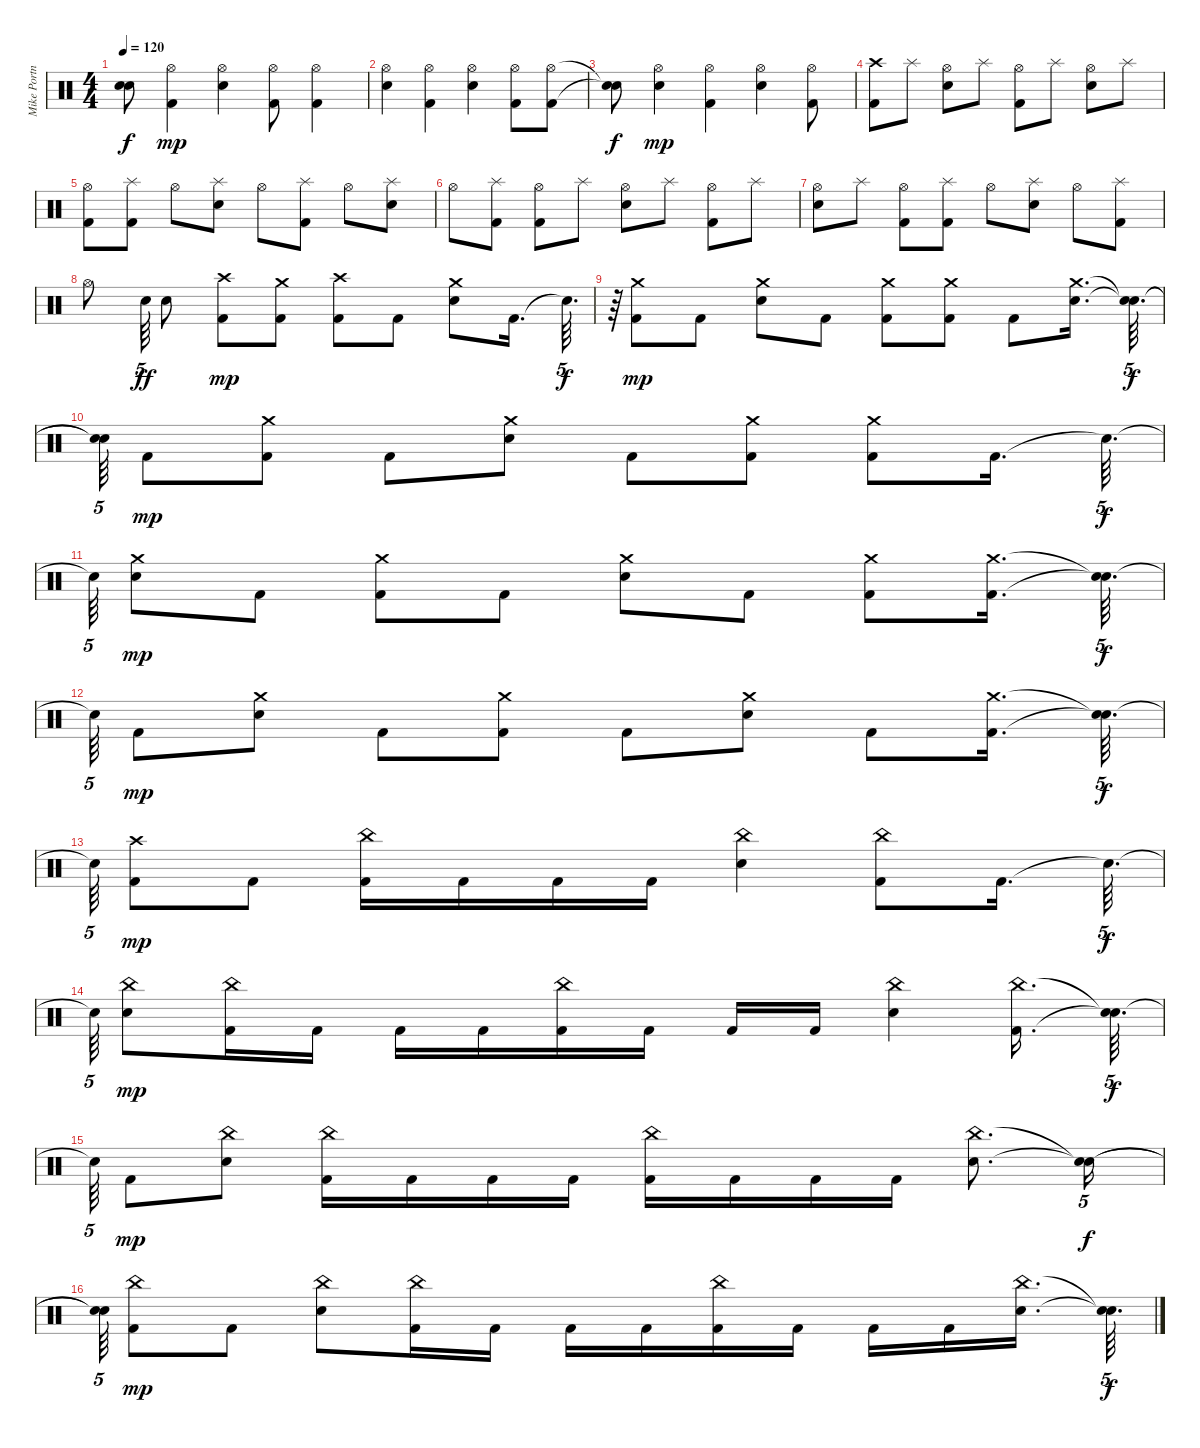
\track ("Mike Portnoy" "Mike Portn") {instrument percussion}
\staff {score}
\articulation defaults
\ts (4 4)
\tempo 120
\clef neutral
\ks c
("Snare (hit)"{t} "Snare (hit)"{t}).8{dy f} ("Kick (hit) 2" "Hi-Hat (open)").4{dy mp} ("Electric Snare (hit)" "Hi-Hat (open)").4 ("Kick (hit) 2" "Hi-Hat (open)").8 ("Kick (hit) 2" "Hi-Hat (open)").4 |
("Electric Snare (hit)" "Hi-Hat (open)").4 ("Kick (hit) 2" "Hi-Hat (open)").4 ("Electric Snare (hit)" "Hi-Hat (open)").4 ("Kick (hit) 2" "Hi-Hat (open)").8 ("Kick (hit) 2" "Hi-Hat (open)").8 |
("Snare (hit)"{t} "Snare (hit)"{t}).8{dy f} ("Electric Snare (hit)" "Hi-Hat (open)").4{dy mp} ("Kick (hit) 2" "Hi-Hat (open)").4 ("Electric Snare (hit)" "Hi-Hat (open)").4 ("Kick (hit) 2" "Hi-Hat (open)").8 |
("Kick (hit) 2" "Crash high (hit)").8 "Splash (hit)".8 ("Electric Snare (hit)" "Hi-Hat (open)").8 "Splash (hit)".8 ("Kick (hit) 2" "Hi-Hat (open)").8 "Splash (hit)".8 ("Electric Snare (hit)" "Hi-Hat (open)").8 "Splash (hit)".8 |
("Kick (hit) 2" "Hi-Hat (open)").8 ("Kick (hit) 2" "Splash (hit)").8 "Hi-Hat (open)".8 ("Electric Snare (hit)" "Splash (hit)").8 "Hi-Hat (open)".8 ("Kick (hit) 2" "Splash (hit)").8 "Hi-Hat (open)".8 ("Electric Snare (hit)" "Splash (hit)").8 |
"Hi-Hat (open)".8 ("Kick (hit) 2" "Splash (hit)").8 ("Kick (hit) 2" "Hi-Hat (open)").8 "Splash (hit)".8 ("Electric Snare (hit)" "Hi-Hat (open)").8 "Splash (hit)".8 ("Kick (hit) 2" "Hi-Hat (open)").8 "Splash (hit)".8 |
("Electric Snare (hit)" "Hi-Hat (open)").8 "Splash (hit)".8 ("Kick (hit) 2" "Hi-Hat (open)").8 ("Kick (hit) 2" "Splash (hit)").8 "Hi-Hat (open)".8 ("Electric Snare (hit)" "Splash (hit)").8 "Hi-Hat (open)".8 ("Kick (hit) 2" "Splash (hit)").8 |
"Hi-Hat (open)".8 "Electric Snare (hit)".64{tu (5 4) dy ff} "Electric Snare (hit)".8 ("Kick (hit) 2" "Crash high (hit)").8{dy mp} ("Kick (hit) 2" "Crash medium (hit)").8 ("Kick (hit) 2" "Crash high (hit)").8 "Kick (hit) 2".8 ("Electric Snare (hit)" "Crash medium (hit)").8 "Kick (hit) 2".16{d} "Snare (hit)"{t}.64{d tu (5 4) dy f} |
r.64{tu (5 4)} ("Kick (hit) 2" "Crash medium (hit)").8{dy mp} "Kick (hit) 2".8 ("Electric Snare (hit)" "Crash medium (hit)").8 "Kick (hit) 2".8 ("Kick (hit) 2" "Crash medium (hit)").8 ("Kick (hit) 2" "Crash medium (hit)").8 "Kick (hit) 2".8 ("Electric Snare (hit)" "Crash medium (hit)").16{d} ("Snare (hit)"{t} "Snare (hit)"{t}).64{d tu (5 4) dy f} |
("Snare (hit)"{t} "Snare (hit)"{t}).64{tu (5 4)} "Kick (hit) 2".8{dy mp} ("Kick (hit) 2" "Crash medium (hit)").8 "Kick (hit) 2".8 ("Electric Snare (hit)" "Crash medium (hit)").8 "Kick (hit) 2".8 ("Kick (hit) 2" "Crash medium (hit)").8 ("Kick (hit) 2" "Crash medium (hit)").8 "Kick (hit) 2".16{d} "Snare (hit)"{t}.64{d tu (5 4) dy f} |
"Snare (hit)"{t}.64{tu (5 4)} ("Electric Snare (hit)" "Crash medium (hit)").8{dy mp} "Kick (hit) 2".8 ("Kick (hit) 2" "Crash medium (hit)").8 "Kick (hit) 2".8 ("Electric Snare (hit)" "Crash medium (hit)").8 "Kick (hit) 2".8 ("Kick (hit) 2" "Crash medium (hit)").8 ("Kick (hit) 2" "Crash medium (hit)").16{d} ("Snare (hit)"{t} "Snare (hit)"{t}).64{d tu (5 4) dy f} |
"Snare (hit)"{t}.64{tu (5 4)} "Kick (hit) 2".8{dy mp} ("Electric Snare (hit)" "Crash medium (hit)").8 "Kick (hit) 2".8 ("Kick (hit) 2" "Crash medium (hit)").8 "Kick (hit) 2".8 ("Electric Snare (hit)" "Crash medium (hit)").8 "Kick (hit) 2".8 ("Kick (hit) 2" "Crash medium (hit)").16{d} ("Snare (hit)"{t} "Snare (hit)"{t}).64{d tu (5 4) dy f} |
"Snare (hit)"{t}.64{tu (5 4)} ("Kick (hit) 2" "Crash high (hit)").8{dy mp} "Kick (hit) 2".8 ("Kick (hit) 2" "China (hit)").16 "Kick (hit) 2".16 "Kick (hit) 2".16 "Kick (hit) 2".16 ("Electric Snare (hit)" "China (hit)").4 ("Kick (hit) 2" "China (hit)").8 "Kick (hit) 2".16{d} "Snare (hit)"{t}.64{d tu (5 4) dy f} |
"Snare (hit)"{t}.64{tu (5 4)} ("Electric Snare (hit)" "China (hit)").8{dy mp} ("Kick (hit) 2" "China (hit)").16 "Kick (hit) 2".16 "Kick (hit) 2".16 "Kick (hit) 2".16 ("Kick (hit) 2" "China (hit)").16 "Kick (hit) 2".16 "Kick (hit) 2".16 "Kick (hit) 2".16 ("Electric Snare (hit)" "China (hit)").4 ("Kick (hit) 2" "China (hit)").16{d} ("Snare (hit)"{t} "Snare (hit)"{t}).64{d tu (5 4) dy f} |
"Snare (hit)"{t}.64{tu (5 4)} "Kick (hit) 2".8{dy mp} ("Electric Snare (hit)" "China (hit)").8 ("Kick (hit) 2" "China (hit)").16 "Kick (hit) 2".16 "Kick (hit) 2".16 "Kick (hit) 2".16 ("Kick (hit) 2" "China (hit)").16 "Kick (hit) 2".16 "Kick (hit) 2".16 "Kick (hit) 2".16 ("Electric Snare (hit)" "China (hit)").8{d} ("Snare (hit)"{t} "Snare (hit)"{t}).16{tu (5 4) dy f} |
("Snare (hit)"{t} "Snare (hit)"{t}).64{tu (5 4)} ("Kick (hit) 2" "China (hit)").8{dy mp} "Kick (hit) 2".8 ("Electric Snare (hit)" "China (hit)").8 ("Kick (hit) 2" "China (hit)").16 "Kick (hit) 2".16 "Kick (hit) 2".16 "Kick (hit) 2".16 ("Kick (hit) 2" "China (hit)").16 "Kick (hit) 2".16 "Kick (hit) 2".16 "Kick (hit) 2".16 ("Electric Snare (hit)" "China (hit)").16{d} ("Snare (hit)"{t} "Snare (hit)"{t}).64{d tu (5 4) dy f}
